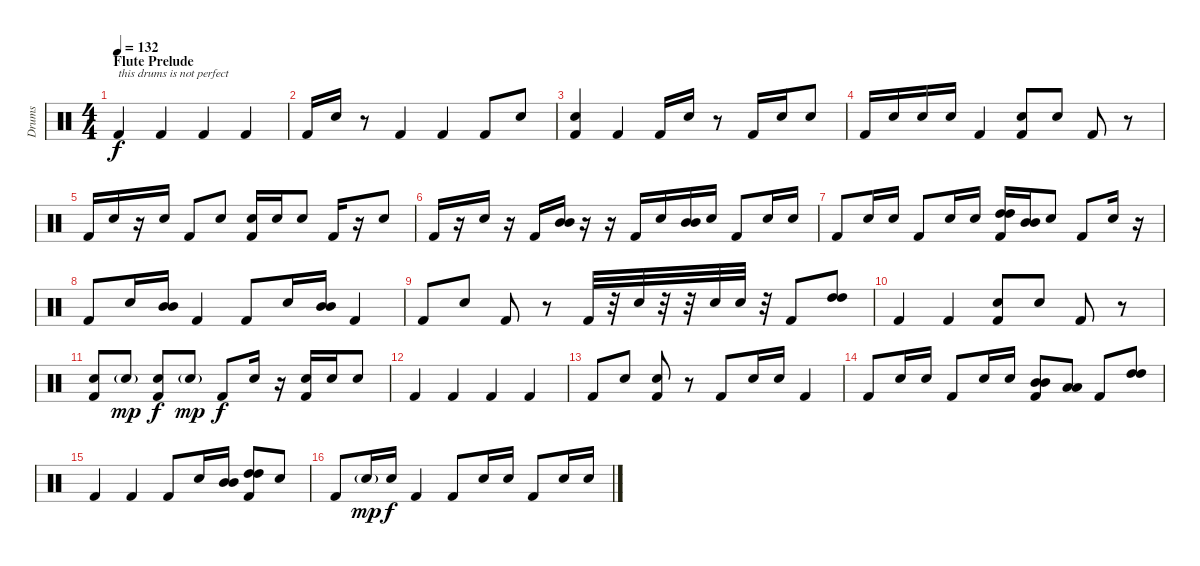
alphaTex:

\track ("Drums" "Drums") {instrument percussion}
\staff {score}
\articulation defaults
\ts (4 4)
\section ("" "Flute Prelude")
\tempo 132
\clef neutral
\ks c "Kick (hit) 2".4{txt "this drums is not perfect" dy f volume 16} "Kick (hit) 2".4 "Kick (hit) 2".4 "Kick (hit) 2".4
|
"Kick (hit) 2".16 "Electric Snare (hit)".16 r.8 "Kick (hit) 2".4 "Kick (hit) 2".4 "Kick (hit) 2".8 "Electric Snare (hit)".8 |
("Electric Snare (hit)" "Kick (hit) 2").4 "Kick (hit) 2".4 "Kick (hit) 2".16 "Electric Snare (hit)".16 r.8 "Kick (hit) 2".16 "Electric Snare (hit)".16 "Electric Snare (hit)".8 |
"Kick (hit) 2".16 "Electric Snare (hit)".16 "Electric Snare (hit)".16 "Electric Snare (hit)".16 "Kick (hit) 2".4 ("Electric Snare (hit)" "Kick (hit) 2").8 "Electric Snare (hit)".8 "Kick (hit) 2".8 r.8 |
"Kick (hit) 2".16 "Electric Snare (hit)".16 r.16 "Electric Snare (hit)".16 "Kick (hit) 2".8 "Electric Snare (hit)".8 ("Electric Snare (hit)" "Kick (hit) 2").16 "Electric Snare (hit)".16 "Electric Snare (hit)".8 "Kick (hit) 2".16 r.16 "Electric Snare (hit)".8 |
"Kick (hit) 2".16 r.16 "Electric Snare (hit)".16 r.16 "Kick (hit) 2".16 ("Mid Tom (hit)" "Mid Tom (hit)").16 r.16 r.16 "Kick (hit) 2".16 "Electric Snare (hit)".16 ("Mid Tom (hit)" "Mid Tom (hit)").16 "Electric Snare (hit)".16 "Kick (hit) 2".8 "Electric Snare (hit)".16 "Electric Snare (hit)".16 |
"Kick (hit) 2".8 "Electric Snare (hit)".16 "Electric Snare (hit)".16 "Kick (hit) 2".8 "Electric Snare (hit)".16 "Electric Snare (hit)".16 ("High Tom (hit)" "High Tom (hit)" "Kick (hit) 2").16 ("Mid Tom (hit)" "Mid Tom (hit)").16 "Electric Snare (hit)".8 "Kick (hit) 2".8 "Electric Snare (hit)".16 r.16 |
"Kick (hit) 2".8 "Electric Snare (hit)".16 ("Mid Tom (hit)" "Mid Tom (hit)").16 "Kick (hit) 2".4 "Kick (hit) 2".8 "Electric Snare (hit)".16 ("Mid Tom (hit)" "Mid Tom (hit)").16 "Kick (hit) 2".4 |
"Kick (hit) 2".8 "Electric Snare (hit)".8 "Kick (hit) 2".8 r.8 "Kick (hit) 2".32 r.32 "Electric Snare (hit)".32 r.32 r.32 "Electric Snare (hit)".32 "Electric Snare (hit)".32 r.32 "Kick (hit) 2".8 ("High Tom (hit)" "High Tom (hit)").8 |
"Kick (hit) 2".4 "Kick (hit) 2".4 ("Electric Snare (hit)" "Kick (hit) 2").8 "Electric Snare (hit)".8 "Kick (hit) 2".8 r.8 |
("Electric Snare (hit)" "Kick (hit) 2").8 "Electric Snare (hit)"{g}.8{dy mp} ("Electric Snare (hit)" "Kick (hit) 2").8{dy f} "Electric Snare (hit)"{g}.8{dy mp} "Kick (hit) 2".8{dy f} "Electric Snare (hit)".16 r.16 ("Electric Snare (hit)" "Kick (hit) 2").16 "Electric Snare (hit)".16 "Electric Snare (hit)".8 |
"Kick (hit) 2".4 "Kick (hit) 2".4 "Kick (hit) 2".4 "Kick (hit) 2".4 |
"Kick (hit) 2".8 "Electric Snare (hit)".8 ("Electric Snare (hit)" "Kick (hit) 2").8 r.8 "Kick (hit) 2".8 "Electric Snare (hit)".16 "Electric Snare (hit)".16 "Kick (hit) 2".4 |
"Kick (hit) 2".8 "Electric Snare (hit)".16 "Electric Snare (hit)".16 "Kick (hit) 2".8 "Electric Snare (hit)".16 "Electric Snare (hit)".16 ("Mid Tom (hit)" "Mid Tom (hit)" "Kick (hit) 2").8 ("Low Tom (hit)" "Low Tom (hit)").8 "Kick (hit) 2".8 ("High Tom (hit)" "High Tom (hit)").8 |
"Kick (hit) 2".4 "Kick (hit) 2".4 "Kick (hit) 2".8 "Electric Snare (hit)".16 ("Mid Tom (hit)" "Mid Tom (hit)").16 ("High Tom (hit)" "High Tom (hit)" "Kick (hit) 2").8 "Electric Snare (hit)".8 |
"Kick (hit) 2".8 "Electric Snare (hit)"{g}.16{dy mp} "Electric Snare (hit)".16{dy f} "Kick (hit) 2".4 "Kick (hit) 2".8 "Electric Snare (hit)".16 "Electric Snare (hit)".16 "Kick (hit) 2".8 "Electric Snare (hit)".16 "Electric Snare (hit)".16
